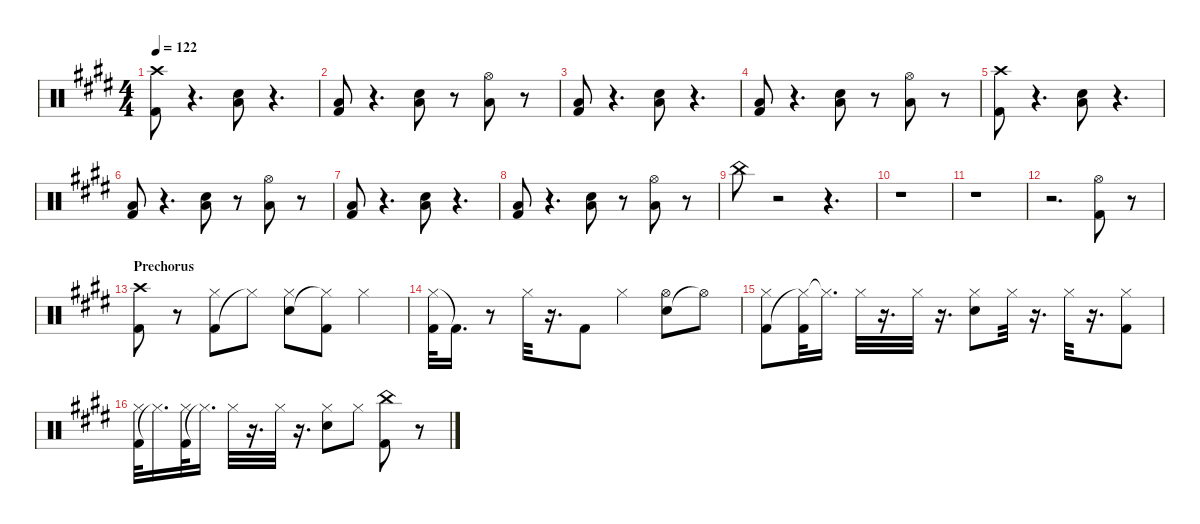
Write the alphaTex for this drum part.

\defaultSystemsLayout 4
\hideDynamics
\bracketExtendMode nobrackets
\otherSystemsTrackNameOrientation horizontal
\track ("Shinya" "  ") {instrument percussion}
\staff {score}
\articulation defaults
\ts (4 4)
\tempo 122
\clef neutral
\ks c#minor
("Kick (hit) 2"{acc forcenatural} "Crash high (hit)"{acc #}).8{dy fff} r.4{d} ("Snare (hit) 2"{acc forcenatural} "Low Tom (hit)"{acc forcenatural}).8 r.4{d} |
("Kick (hit) 2"{acc forcenatural} "Low Tom (hit)"{acc forcenatural}).8 r.4{d} ("Snare (hit) 2"{acc forcenatural} "Low Tom (hit)"{acc forcenatural}).8 r.8 ("Low Tom (hit)"{acc forcenatural} "Hi-Hat (open)"{acc #}).8 r.8 |
("Kick (hit) 2"{acc forcenatural} "Low Tom (hit)"{acc forcenatural}).8 r.4{d} ("Snare (hit) 2"{acc forcenatural} "Low Tom (hit)"{acc forcenatural}).8 r.4{d} |
("Kick (hit) 2"{acc forcenatural} "Low Tom (hit)"{acc forcenatural}).8 r.4{d} ("Snare (hit) 2"{acc forcenatural} "Low Tom (hit)"{acc forcenatural}).8 r.8 ("Low Tom (hit)"{acc forcenatural} "Hi-Hat (open)"{acc #}).8 r.8 |
("Kick (hit) 2"{acc forcenatural} "Crash high (hit)"{acc #}).8 r.4{d} ("Snare (hit) 2"{acc forcenatural} "Low Tom (hit)"{acc forcenatural}).8 r.4{d} |
("Kick (hit) 2"{acc forcenatural} "Low Tom (hit)"{acc forcenatural}).8 r.4{d} ("Snare (hit) 2"{acc forcenatural} "Low Tom (hit)"{acc forcenatural}).8 r.8 ("Low Tom (hit)"{acc forcenatural} "Hi-Hat (open)"{acc #}).8 r.8 |
("Kick (hit) 2"{acc forcenatural} "Low Tom (hit)"{acc forcenatural}).8 r.4{d} ("Snare (hit) 2"{acc forcenatural} "Low Tom (hit)"{acc forcenatural}).8 r.4{d} |
("Kick (hit) 2"{acc forcenatural} "Low Tom (hit)"{acc forcenatural}).8 r.4{d} ("Snare (hit) 2"{acc forcenatural} "Low Tom (hit)"{acc forcenatural}).8 r.8 ("Low Tom (hit)"{acc forcenatural} "Hi-Hat (open)"{acc #}).8 r.8 |
"China (hit)"{acc forcenatural}.8 r.2 r.4{d} |
r.1 |
r.1 |
r.2{d} ("Kick (hit) 2"{acc forcenatural} "Hi-Hat (open)"{acc #}).8 r.8 |
\section ("" "Prechorus")
("Kick (hit) 2"{acc forcenatural} "Crash high (hit)"{acc #}).8 r.8 ("Kick (hit) 2"{acc forcenatural} "Hi-Hat (closed)"{acc #}).8 "Hi-Hat (closed)"{t acc #}.8 ("Snare (hit) 2"{acc forcenatural} "Hi-Hat (closed)"{acc #}).8 ("Hi-Hat (closed)"{t acc #} "Kick (hit) 2"{acc forcenatural}).8 "Hi-Hat (closed)"{acc #}.4 |
("Hi-Hat (closed)"{acc #} "Kick (hit) 2"{acc forcenatural}).32 "Kick (hit) 2"{t acc forcenatural}.16{d} r.8 "Hi-Hat (closed)"{acc #}.32 r.16{d} "Kick (hit) 2"{acc forcenatural}.8 "Hi-Hat (closed)"{acc #}.4 ("Snare (hit) 2"{acc forcenatural} "Hi-Hat (open)"{acc #}).8 "Hi-Hat (open)"{t acc #}.8 |
("Kick (hit) 2"{acc forcenatural} "Hi-Hat (closed)"{acc #}).8 ("Hi-Hat (closed)"{t acc #} "Kick (hit) 2"{acc forcenatural}).32 "Hi-Hat (closed)"{t acc #}.16{d} "Hi-Hat (closed)"{acc #}.32 r.16{d} "Hi-Hat (closed)"{acc #}.32 r.16{d} ("Snare (hit) 2"{acc forcenatural} "Hi-Hat (closed)"{acc #}).8 "Hi-Hat (closed)"{acc #}.32 r.16{d} "Hi-Hat (closed)"{acc #}.32 r.16{d} ("Kick (hit) 2"{acc forcenatural} "Hi-Hat (closed)"{acc #}).8 |
("Kick (hit) 2"{acc forcenatural} "Hi-Hat (closed)"{acc #}).32 "Hi-Hat (closed)"{t acc #}.16{d} ("Kick (hit) 2"{acc forcenatural} "Hi-Hat (closed)"{acc #}).32 "Hi-Hat (closed)"{t acc #}.16{d} "Hi-Hat (closed)"{acc #}.32 r.16{d} "Hi-Hat (closed)"{acc #}.32 r.16{d} ("Snare (hit) 2"{acc forcenatural} "Hi-Hat (closed)"{acc #}).8 "Hi-Hat (closed)"{acc #}.8 ("Kick (hit) 2"{acc forcenatural} "China (hit)"{acc forcenatural}).8 r.8
